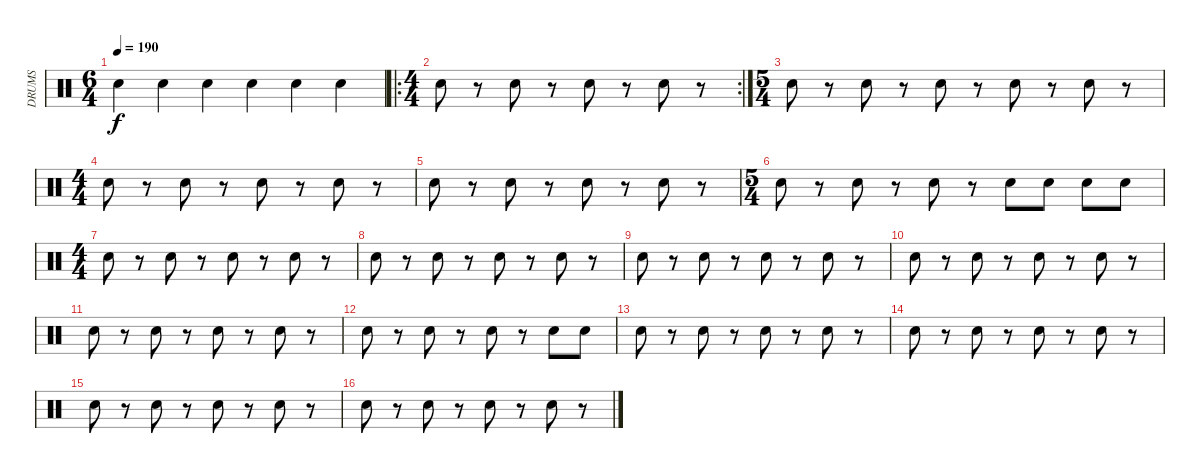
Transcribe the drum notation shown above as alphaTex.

\track ("DRUMS" "DRUMS") {instrument percussion}
\staff {score}
\articulation defaults
\ts (6 4)
\tempo 190
\clef neutral
\ks c "Electric Snare (hit)".4{dy f} "Electric Snare (hit)".4 "Electric Snare (hit)".4 "Electric Snare (hit)".4 "Electric Snare (hit)".4 "Electric Snare (hit)".4
|
\ro
\rc 2
\ts (4 4)
"Electric Snare (hit)".8 r.8 "Electric Snare (hit)".8 r.8 "Electric Snare (hit)".8 r.8 "Electric Snare (hit)".8 r.8 |
\ts (5 4)
"Electric Snare (hit)".8 r.8 "Electric Snare (hit)".8 r.8 "Electric Snare (hit)".8 r.8 "Electric Snare (hit)".8 r.8 "Electric Snare (hit)".8 r.8 |
\ts (4 4)
"Electric Snare (hit)".8 r.8 "Electric Snare (hit)".8 r.8 "Electric Snare (hit)".8 r.8 "Electric Snare (hit)".8 r.8 |
"Electric Snare (hit)".8 r.8 "Electric Snare (hit)".8 r.8 "Electric Snare (hit)".8 r.8 "Electric Snare (hit)".8 r.8 |
\ts (5 4)
"Electric Snare (hit)".8 r.8 "Electric Snare (hit)".8 r.8 "Electric Snare (hit)".8 r.8 "Electric Snare (hit)".8 "Electric Snare (hit)".8 "Electric Snare (hit)".8 "Electric Snare (hit)".8 |
\ts (4 4)
"Electric Snare (hit)".8 r.8 "Electric Snare (hit)".8 r.8 "Electric Snare (hit)".8 r.8 "Electric Snare (hit)".8 r.8 |
"Electric Snare (hit)".8 r.8 "Electric Snare (hit)".8 r.8 "Electric Snare (hit)".8 r.8 "Electric Snare (hit)".8 r.8 |
"Electric Snare (hit)".8 r.8 "Electric Snare (hit)".8 r.8 "Electric Snare (hit)".8 r.8 "Electric Snare (hit)".8 r.8 |
"Electric Snare (hit)".8 r.8 "Electric Snare (hit)".8 r.8 "Electric Snare (hit)".8 r.8 "Electric Snare (hit)".8 r.8 |
"Electric Snare (hit)".8 r.8 "Electric Snare (hit)".8 r.8 "Electric Snare (hit)".8 r.8 "Electric Snare (hit)".8 r.8 |
"Electric Snare (hit)".8 r.8 "Electric Snare (hit)".8 r.8 "Electric Snare (hit)".8 r.8 "Electric Snare (hit)".8 "Electric Snare (hit)".8 |
"Electric Snare (hit)".8 r.8 "Electric Snare (hit)".8 r.8 "Electric Snare (hit)".8 r.8 "Electric Snare (hit)".8 r.8 |
"Electric Snare (hit)".8 r.8 "Electric Snare (hit)".8 r.8 "Electric Snare (hit)".8 r.8 "Electric Snare (hit)".8 r.8 |
"Electric Snare (hit)".8 r.8 "Electric Snare (hit)".8 r.8 "Electric Snare (hit)".8 r.8 "Electric Snare (hit)".8 r.8 |
"Electric Snare (hit)".8 r.8 "Electric Snare (hit)".8 r.8 "Electric Snare (hit)".8 r.8 "Electric Snare (hit)".8 r.8
